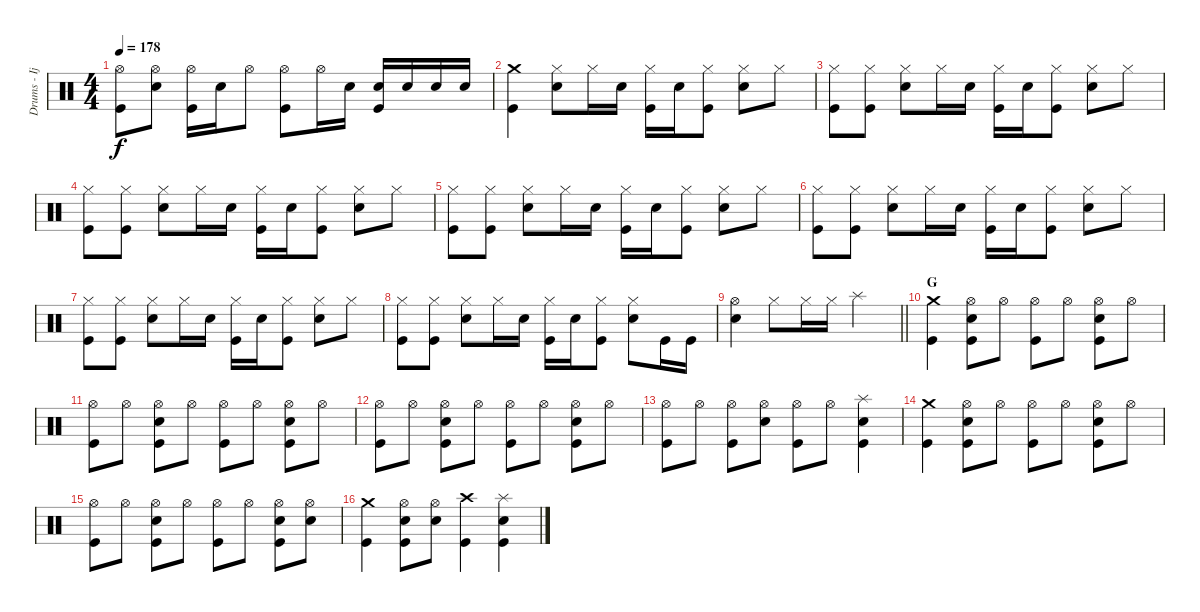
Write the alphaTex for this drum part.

\track ("Drums - Ijichi" "Drums - Ij") {instrument percussion}
\staff {score}
\articulation defaults
\ts (4 4)
\tempo 178
\clef neutral
\ks c
("Hi-Hat (open)" "Kick (hit)").8{dy f} ("Hi-Hat (open)" "Electric Snare (hit)").8 ("Hi-Hat (open)" "Kick (hit)").16 "Electric Snare (hit)".16 "Hi-Hat (open)".8 ("Hi-Hat (open)" "Kick (hit)").8 "Hi-Hat (open)".16 "Electric Snare (hit)".16 ("Electric Snare (hit)" "Kick (hit)").16 "Electric Snare (hit)".16 "Electric Snare (hit)".16 "Electric Snare (hit)".16 |
("Crash medium (hit)" "Kick (hit)").4 ("Hi-Hat (closed)" "Electric Snare (hit)").8 "Hi-Hat (closed)".16 "Electric Snare (hit)".16 ("Hi-Hat (closed)" "Kick (hit)").16 "Electric Snare (hit)".16 ("Hi-Hat (closed)" "Kick (hit)").8 ("Hi-Hat (closed)" "Electric Snare (hit)").8 "Hi-Hat (closed)".8 |
("Hi-Hat (closed)" "Kick (hit)").8 ("Hi-Hat (closed)" "Kick (hit)").8 ("Hi-Hat (closed)" "Electric Snare (hit)").8 "Hi-Hat (closed)".16 "Electric Snare (hit)".16 ("Hi-Hat (closed)" "Kick (hit)").16 "Electric Snare (hit)".16 ("Hi-Hat (closed)" "Kick (hit)").8 ("Hi-Hat (closed)" "Electric Snare (hit)").8 "Hi-Hat (closed)".8 |
("Hi-Hat (closed)" "Kick (hit)").8 ("Hi-Hat (closed)" "Kick (hit)").8 ("Hi-Hat (closed)" "Electric Snare (hit)").8 "Hi-Hat (closed)".16 "Electric Snare (hit)".16 ("Hi-Hat (closed)" "Kick (hit)").16 "Electric Snare (hit)".16 ("Hi-Hat (closed)" "Kick (hit)").8 ("Hi-Hat (closed)" "Electric Snare (hit)").8 "Hi-Hat (closed)".8 |
("Hi-Hat (closed)" "Kick (hit)").8 ("Hi-Hat (closed)" "Kick (hit)").8 ("Hi-Hat (closed)" "Electric Snare (hit)").8 "Hi-Hat (closed)".16 "Electric Snare (hit)".16 ("Hi-Hat (closed)" "Kick (hit)").16 "Electric Snare (hit)".16 ("Hi-Hat (closed)" "Kick (hit)").8 ("Hi-Hat (closed)" "Electric Snare (hit)").8 "Hi-Hat (closed)".8 |
("Hi-Hat (closed)" "Kick (hit)").8 ("Hi-Hat (closed)" "Kick (hit)").8 ("Hi-Hat (closed)" "Electric Snare (hit)").8 "Hi-Hat (closed)".16 "Electric Snare (hit)".16 ("Hi-Hat (closed)" "Kick (hit)").16 "Electric Snare (hit)".16 ("Hi-Hat (closed)" "Kick (hit)").8 ("Hi-Hat (closed)" "Electric Snare (hit)").8 "Hi-Hat (closed)".8 |
("Hi-Hat (closed)" "Kick (hit)").8 ("Hi-Hat (closed)" "Kick (hit)").8 ("Hi-Hat (closed)" "Electric Snare (hit)").8 "Hi-Hat (closed)".16 "Electric Snare (hit)".16 ("Hi-Hat (closed)" "Kick (hit)").16 "Electric Snare (hit)".16 ("Hi-Hat (closed)" "Kick (hit)").8 ("Hi-Hat (closed)" "Electric Snare (hit)").8 "Hi-Hat (closed)".8 |
("Hi-Hat (closed)" "Kick (hit)").8 ("Hi-Hat (closed)" "Kick (hit)").8 ("Hi-Hat (closed)" "Electric Snare (hit)").8 "Hi-Hat (closed)".16 "Electric Snare (hit)".16 ("Hi-Hat (closed)" "Kick (hit)").16 "Electric Snare (hit)".16 ("Hi-Hat (closed)" "Kick (hit)").8 ("Hi-Hat (closed)" "Electric Snare (hit)").8 "Kick (hit)".16 "Kick (hit)".16 |
\barLineRight lightlight
("Hi-Hat (open)" "Electric Snare (hit)").4 "Hi-Hat (closed)".8 "Hi-Hat (closed)".16 "Hi-Hat (closed)".16 "Splash (hit)".2 |
\section ("" "G")
("Crash medium (hit)" "Kick (hit)").4 ("Hi-Hat (open)" "Electric Snare (hit)" "Kick (hit)").8 "Hi-Hat (open)".8 ("Hi-Hat (open)" "Kick (hit)").8 "Hi-Hat (open)".8 ("Hi-Hat (open)" "Electric Snare (hit)" "Kick (hit)").8 "Hi-Hat (open)".8 |
("Hi-Hat (open)" "Kick (hit)").8 "Hi-Hat (open)".8 ("Hi-Hat (open)" "Electric Snare (hit)" "Kick (hit)").8 "Hi-Hat (open)".8 ("Hi-Hat (open)" "Kick (hit)").8 "Hi-Hat (open)".8 ("Hi-Hat (open)" "Electric Snare (hit)" "Kick (hit)").8 "Hi-Hat (open)".8 |
("Hi-Hat (open)" "Kick (hit)").8 "Hi-Hat (open)".8 ("Hi-Hat (open)" "Electric Snare (hit)" "Kick (hit)").8 "Hi-Hat (open)".8 ("Hi-Hat (open)" "Kick (hit)").8 "Hi-Hat (open)".8 ("Hi-Hat (open)" "Electric Snare (hit)" "Kick (hit)").8 "Hi-Hat (open)".8 |
("Hi-Hat (open)" "Kick (hit)").8 "Hi-Hat (open)".8 ("Hi-Hat (open)" "Kick (hit)").8 ("Hi-Hat (open)" "Electric Snare (hit)").8 ("Hi-Hat (open)" "Kick (hit)").8 "Hi-Hat (open)".8 ("Splash (hit)" "Electric Snare (hit)" "Kick (hit)").4 |
("Crash medium (hit)" "Kick (hit)").4 ("Hi-Hat (open)" "Electric Snare (hit)" "Kick (hit)").8 "Hi-Hat (open)".8 ("Hi-Hat (open)" "Kick (hit)").8 "Hi-Hat (open)".8 ("Hi-Hat (open)" "Electric Snare (hit)" "Kick (hit)").8 "Hi-Hat (open)".8 |
("Hi-Hat (open)" "Kick (hit)").8 "Hi-Hat (open)".8 ("Hi-Hat (open)" "Electric Snare (hit)" "Kick (hit)").8 "Hi-Hat (open)".8 ("Hi-Hat (open)" "Kick (hit)").8 "Hi-Hat (open)".8 ("Hi-Hat (open)" "Electric Snare (hit)" "Kick (hit)").8 ("Hi-Hat (open)" "Electric Snare (hit)").8 |
("Crash medium (hit)" "Kick (hit)").4 ("Hi-Hat (open)" "Electric Snare (hit)" "Kick (hit)").8 ("Hi-Hat (open)" "Electric Snare (hit)").8 ("Crash high (hit)" "Kick (hit)").4 ("Splash (hit)" "Electric Snare (hit)" "Kick (hit)").4
